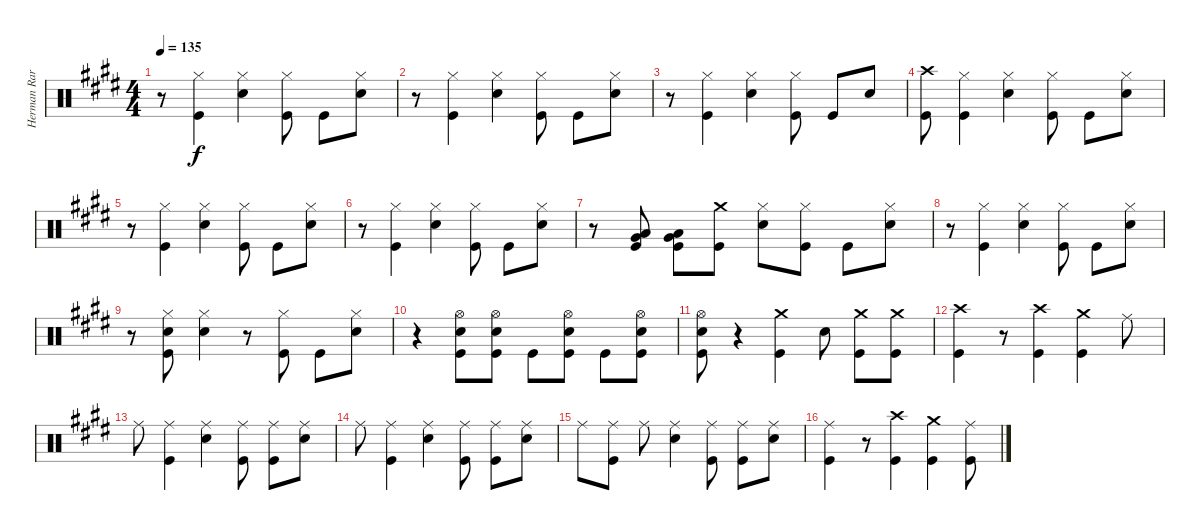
\track ("Herman Rarebell Drums" "Herman Rar") {instrument percussion}
\staff {score}
\articulation defaults
\ts (4 4)
\tempo 135
\clef neutral
\ks e
r.8{dy f} ("Hi-Hat (closed)" "Kick (hit)").4 ("Hi-Hat (closed)" "Snare (hit) 2").4 ("Hi-Hat (closed)" "Kick (hit)").8 "Kick (hit)".8 ("Hi-Hat (closed)" "Snare (hit) 2").8 |
r.8 ("Hi-Hat (closed)" "Kick (hit)").4 ("Hi-Hat (closed)" "Snare (hit) 2").4 ("Hi-Hat (closed)" "Kick (hit)").8 "Kick (hit)".8 ("Hi-Hat (closed)" "Snare (hit) 2").8 |
r.8 ("Hi-Hat (closed)" "Kick (hit)").4 ("Hi-Hat (closed)" "Snare (hit) 2").4 ("Hi-Hat (closed)" "Kick (hit)").8 "Kick (hit)".8 "Snare (hit) 2".8 |
("Crash high (hit)" "Kick (hit)").8 ("Hi-Hat (closed)" "Kick (hit)").4 ("Hi-Hat (closed)" "Snare (hit) 2").4 ("Hi-Hat (closed)" "Kick (hit)").8 "Kick (hit)".8 ("Hi-Hat (closed)" "Snare (hit) 2").8 |
r.8 ("Hi-Hat (closed)" "Kick (hit)").4 ("Hi-Hat (closed)" "Snare (hit) 2").4 ("Hi-Hat (closed)" "Kick (hit)").8 "Kick (hit)".8 ("Hi-Hat (closed)" "Snare (hit) 2").8 |
r.8 ("Hi-Hat (closed)" "Kick (hit)").4 ("Hi-Hat (closed)" "Snare (hit) 2").4 ("Hi-Hat (closed)" "Kick (hit)").8 "Kick (hit)".8 ("Hi-Hat (closed)" "Snare (hit) 2").8 |
r.8 ("Very Low Tom (hit)" "Low Floor Tom (hit)" "Kick (hit)").8 ("Very Low Tom (hit)" "Low Floor Tom (hit)" "Kick (hit)").8 ("Crash medium (hit)" "Kick (hit)").8 ("Hi-Hat (closed)" "Snare (hit) 2").8 ("Hi-Hat (closed)" "Kick (hit)").8 "Kick (hit)".8 ("Hi-Hat (closed)" "Snare (hit) 2").8 |
r.8 ("Hi-Hat (closed)" "Kick (hit)").4 ("Hi-Hat (closed)" "Snare (hit) 2").4 ("Hi-Hat (closed)" "Kick (hit)").8 "Kick (hit)".8 ("Hi-Hat (closed)" "Snare (hit) 2").8 |
r.8 ("Hi-Hat (closed)" "Snare (hit) 2" "Kick (hit)").8 ("Hi-Hat (closed)" "Snare (hit) 2").4 r.8 ("Hi-Hat (closed)" "Kick (hit)").8 "Kick (hit)".8 ("Hi-Hat (closed)" "Snare (hit) 2").8 |
r.4 ("Hi-Hat (open)" "Snare (hit) 2" "Kick (hit)").8 ("Hi-Hat (open)" "Snare (hit) 2" "Kick (hit)").8 "Kick (hit)".8 ("Hi-Hat (open)" "Snare (hit) 2" "Kick (hit)").8 "Kick (hit)".8 ("Hi-Hat (open)" "Snare (hit) 2" "Kick (hit)").8 |
("Hi-Hat (open)" "Snare (hit) 2" "Kick (hit)").8 r.4 ("Crash medium (hit)" "Kick (hit)").4 "Snare (hit) 2".8 ("Crash medium (hit)" "Kick (hit)").8 ("Crash medium (hit)" "Kick (hit)").8 |
("Crash high (hit)" "Kick (hit)").4 r.8 ("Crash high (hit)" "Kick (hit)").4 ("Crash medium (hit)" "Kick (hit)").4 "Ride (middle)".8 |
"Ride (middle)".8 ("Ride (middle)" "Kick (hit)").4 ("Ride (middle)" "Snare (hit) 2").4 ("Ride (middle)" "Kick (hit)").8 ("Ride (middle)" "Kick (hit)").8 ("Ride (middle)" "Snare (hit) 2").8 |
"Ride (middle)".8 ("Ride (middle)" "Kick (hit)").4 ("Ride (middle)" "Snare (hit) 2").4 ("Ride (middle)" "Kick (hit)").8 ("Ride (middle)" "Kick (hit)").8 ("Ride (middle)" "Snare (hit) 2").8 |
"Ride (middle)".8 ("Ride (middle)" "Kick (hit)").8 "Ride (middle)".8 ("Ride (middle)" "Snare (hit) 2").4 ("Ride (middle)" "Kick (hit)").8 ("Ride (middle)" "Kick (hit)").8 ("Ride (middle)" "Snare (hit) 2").8 |
("Ride (middle)" "Kick (hit)").4 r.8 ("Crash high (hit)" "Kick (hit)").4 ("Crash medium (hit)" "Kick (hit)").4 ("Ride (middle)" "Kick (hit)").8
